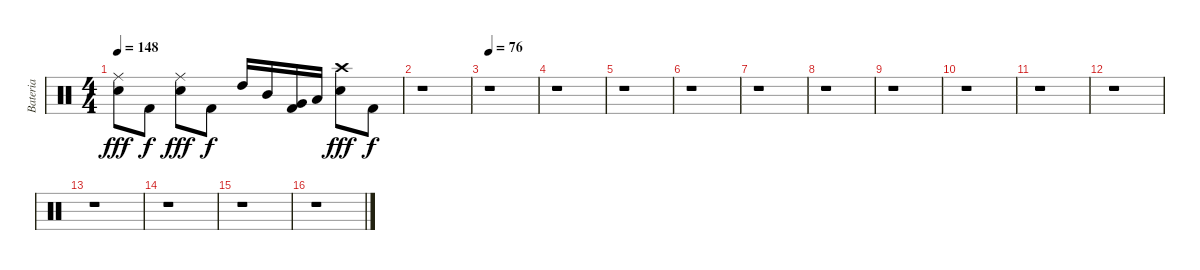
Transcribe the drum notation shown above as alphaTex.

\track ("Bateria" "Bateria") {instrument percussion}
\staff {score}
\articulation defaults
\ts (4 4)
\tempo 148
\clef neutral
\ks c
("Electric Snare (hit)" "Ride (middle)").8{dy fff} "Kick (hit) 2".8{dy f} ("Electric Snare (hit)" "Ride (middle)").8{dy fff} "Kick (hit) 2".8{dy f} "High Tom (hit)".16 "Mid Tom (hit)".16 ("Very Low Tom (hit)" "Kick (hit) 2").16 "Low Floor Tom (hit)".16 ("Electric Snare (hit)" "Crash high (hit)").8{dy fff} "Kick (hit) 2".8{dy f} |
r.1 |
\tempo 76
r.1 |
r.1 |
r.1 |
r.1 |
r.1 |
r.1 |
r.1 |
r.1 |
r.1 |
r.1 |
r.1 |
r.1 |
r.1 |
r.1
